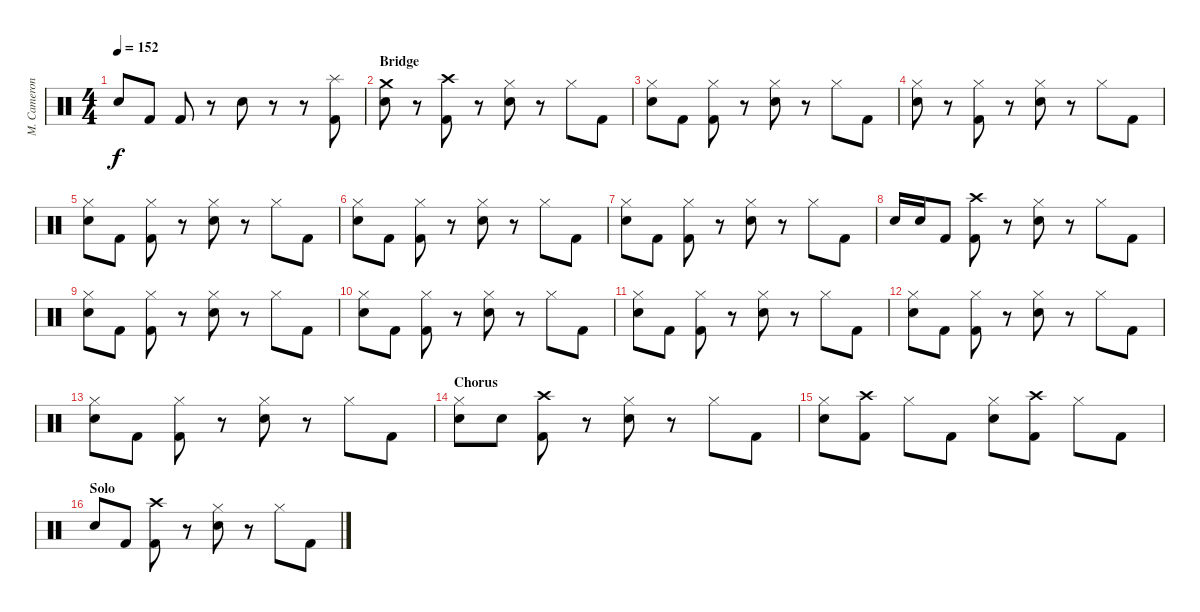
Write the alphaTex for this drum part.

\track ("M. Cameron" "M. Cameron") {instrument percussion}
\staff {score}
\articulation defaults
\ts (4 4)
\tempo 152
\clef neutral
\ks c "Snare (hit) 2".8{dy f} "Kick (hit) 2".8 "Kick (hit) 2".8
r.8 "Snare (hit) 2".8 r.8 r.8 ("Splash (hit)" "Kick (hit) 2").8 |
\section ("" "Bridge")
("Crash medium (hit)" "Snare (hit) 2").8 r.8 ("Crash high (hit)" "Kick (hit) 2").8 r.8 ("Hi-Hat (closed)" "Snare (hit) 2").8 r.8 "Hi-Hat (closed)".8 "Kick (hit) 2".8 |
("Hi-Hat (closed)" "Snare (hit) 2").8 "Kick (hit) 2".8 ("Hi-Hat (closed)" "Kick (hit) 2").8 r.8 ("Hi-Hat (closed)" "Snare (hit) 2").8 r.8 "Hi-Hat (closed)".8 "Kick (hit) 2".8 |
("Hi-Hat (closed)" "Snare (hit) 2").8 r.8 ("Hi-Hat (closed)" "Kick (hit) 2").8 r.8 ("Hi-Hat (closed)" "Snare (hit) 2").8 r.8 "Hi-Hat (closed)".8 "Kick (hit) 2".8 |
("Hi-Hat (closed)" "Snare (hit) 2").8 "Kick (hit) 2".8 ("Hi-Hat (closed)" "Kick (hit) 2").8 r.8 ("Hi-Hat (closed)" "Snare (hit) 2").8 r.8 "Hi-Hat (closed)".8 "Kick (hit) 2".8 |
("Hi-Hat (closed)" "Snare (hit) 2").8 "Kick (hit) 2".8 ("Hi-Hat (closed)" "Kick (hit) 2").8 r.8 ("Hi-Hat (closed)" "Snare (hit) 2").8 r.8 "Hi-Hat (closed)".8 "Kick (hit) 2".8 |
("Hi-Hat (closed)" "Snare (hit) 2").8 "Kick (hit) 2".8 ("Hi-Hat (closed)" "Kick (hit) 2").8 r.8 ("Hi-Hat (closed)" "Snare (hit) 2").8 r.8 "Hi-Hat (closed)".8 "Kick (hit) 2".8 |
"Snare (hit) 2".16 "Snare (hit) 2".16 "Kick (hit) 2".8 ("Crash high (hit)" "Kick (hit) 2").8 r.8 ("Hi-Hat (closed)" "Snare (hit) 2").8 r.8 "Hi-Hat (closed)".8 "Kick (hit) 2".8 |
("Hi-Hat (closed)" "Snare (hit) 2").8 "Kick (hit) 2".8 ("Hi-Hat (closed)" "Kick (hit) 2").8 r.8 ("Hi-Hat (closed)" "Snare (hit) 2").8 r.8 "Hi-Hat (closed)".8 "Kick (hit) 2".8 |
("Hi-Hat (closed)" "Snare (hit) 2").8 "Kick (hit) 2".8 ("Hi-Hat (closed)" "Kick (hit) 2").8 r.8 ("Hi-Hat (closed)" "Snare (hit) 2").8 r.8 "Hi-Hat (closed)".8 "Kick (hit) 2".8 |
("Hi-Hat (closed)" "Snare (hit) 2").8 "Kick (hit) 2".8 ("Hi-Hat (closed)" "Kick (hit) 2").8 r.8 ("Hi-Hat (closed)" "Snare (hit) 2").8 r.8 "Hi-Hat (closed)".8 "Kick (hit) 2".8 |
("Hi-Hat (closed)" "Snare (hit) 2").8 "Kick (hit) 2".8 ("Hi-Hat (closed)" "Kick (hit) 2").8 r.8 ("Hi-Hat (closed)" "Snare (hit) 2").8 r.8 "Hi-Hat (closed)".8 "Kick (hit) 2".8 |
("Hi-Hat (closed)" "Snare (hit) 2").8 "Kick (hit) 2".8 ("Hi-Hat (closed)" "Kick (hit) 2").8 r.8 ("Hi-Hat (closed)" "Snare (hit) 2").8 r.8 "Hi-Hat (closed)".8 "Kick (hit) 2".8 |
\section ("" "Chorus")
("Hi-Hat (closed)" "Snare (hit) 2").8 "Snare (hit) 2".8 ("Crash high (hit)" "Kick (hit) 2").8 r.8 ("Hi-Hat (closed)" "Snare (hit) 2").8 r.8 "Hi-Hat (closed)".8 "Kick (hit) 2".8 |
("Hi-Hat (closed)" "Snare (hit) 2").8 ("Crash high (hit)" "Kick (hit) 2").8 "Hi-Hat (closed)".8 "Kick (hit) 2".8 ("Hi-Hat (closed)" "Snare (hit) 2").8 ("Crash high (hit)" "Kick (hit) 2").8 "Hi-Hat (closed)".8 "Kick (hit) 2".8 |
\section ("" "Solo")
"Snare (hit) 2".8 "Kick (hit) 2".8 ("Crash high (hit)" "Kick (hit) 2").8 r.8 ("Hi-Hat (closed)" "Snare (hit) 2").8 r.8 "Hi-Hat (closed)".8 "Kick (hit) 2".8
